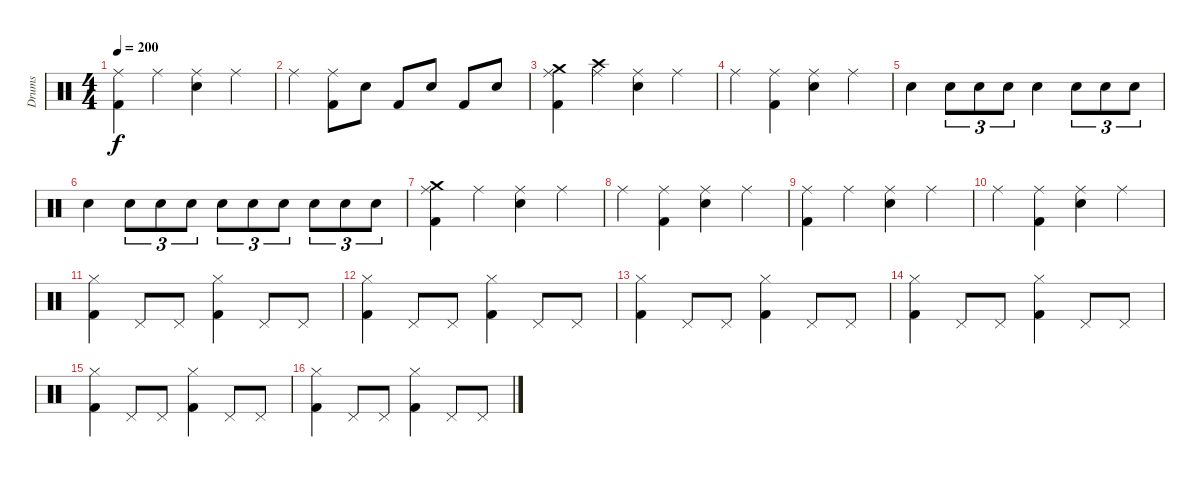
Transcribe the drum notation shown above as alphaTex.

\track ("Drums" "Drums") {instrument percussion}
\staff {score}
\articulation defaults
\ts (4 4)
\tempo 200
\clef neutral
\ks c
("Ride (middle)" "Kick (hit) 2").4{dy f} "Ride (middle)".4 ("Ride (middle)" "Snare (hit) 2").4 "Ride (middle)".4 |
"Ride (middle)".4 ("Ride (middle)" "Kick (hit) 2").8 "Snare (hit) 2".8 "Kick (hit) 2".8 "Snare (hit) 2".8 "Kick (hit) 2".8 "Snare (hit) 2".8 |
("Ride (middle)" "Crash medium (hit)" "Kick (hit) 2").4 ("Ride (middle)" "Crash high (hit)").4 ("Ride (middle)" "Snare (hit) 2").4 "Ride (middle)".4 |
"Ride (middle)".4 ("Ride (middle)" "Kick (hit) 2").4 ("Ride (middle)" "Snare (hit) 2").4 "Ride (middle)".4 |
"Snare (hit) 2".4 "Snare (hit) 2".8{tu (3 2)} "Snare (hit) 2".8{tu (3 2)} "Snare (hit) 2".8{tu (3 2)} "Snare (hit) 2".4 "Snare (hit) 2".8{tu (3 2)} "Snare (hit) 2".8{tu (3 2)} "Snare (hit) 2".8{tu (3 2)} |
"Snare (hit) 2".4 "Snare (hit) 2".8{tu (3 2)} "Snare (hit) 2".8{tu (3 2)} "Snare (hit) 2".8{tu (3 2)} "Snare (hit) 2".8{tu (3 2)} "Snare (hit) 2".8{tu (3 2)} "Snare (hit) 2".8{tu (3 2)} "Snare (hit) 2".8{tu (3 2)} "Snare (hit) 2".8{tu (3 2)} "Snare (hit) 2".8{tu (3 2)} |
("Ride (middle)" "Crash medium (hit)" "Kick (hit) 2").4 "Ride (middle)".4 ("Ride (middle)" "Snare (hit) 2").4 "Ride (middle)".4 |
"Ride (middle)".4 ("Ride (middle)" "Kick (hit) 2").4 ("Ride (middle)" "Snare (hit) 2").4 "Ride (middle)".4 |
("Ride (middle)" "Kick (hit) 2").4 "Ride (middle)".4 ("Ride (middle)" "Snare (hit) 2").4 "Ride (middle)".4 |
"Ride (middle)".4 ("Ride (middle)" "Kick (hit) 2").4 ("Ride (middle)" "Snare (hit) 2").4 "Ride (middle)".4 |
("Hi-Hat (closed)" "Kick (hit) 2").4 "Pedal Hi-Hat (hit)".8 "Pedal Hi-Hat (hit)".8 ("Hi-Hat (closed)" "Kick (hit) 2").4 "Pedal Hi-Hat (hit)".8 "Pedal Hi-Hat (hit)".8 |
("Hi-Hat (closed)" "Kick (hit) 2").4 "Pedal Hi-Hat (hit)".8 "Pedal Hi-Hat (hit)".8 ("Hi-Hat (closed)" "Kick (hit) 2").4 "Pedal Hi-Hat (hit)".8 "Pedal Hi-Hat (hit)".8 |
("Hi-Hat (closed)" "Kick (hit) 2").4 "Pedal Hi-Hat (hit)".8 "Pedal Hi-Hat (hit)".8 ("Hi-Hat (closed)" "Kick (hit) 2").4 "Pedal Hi-Hat (hit)".8 "Pedal Hi-Hat (hit)".8 |
("Hi-Hat (closed)" "Kick (hit) 2").4 "Pedal Hi-Hat (hit)".8 "Pedal Hi-Hat (hit)".8 ("Hi-Hat (closed)" "Kick (hit) 2").4 "Pedal Hi-Hat (hit)".8 "Pedal Hi-Hat (hit)".8 |
("Hi-Hat (closed)" "Kick (hit) 2").4 "Pedal Hi-Hat (hit)".8 "Pedal Hi-Hat (hit)".8 ("Hi-Hat (closed)" "Kick (hit) 2").4 "Pedal Hi-Hat (hit)".8 "Pedal Hi-Hat (hit)".8 |
("Hi-Hat (closed)" "Kick (hit) 2").4 "Pedal Hi-Hat (hit)".8 "Pedal Hi-Hat (hit)".8 ("Hi-Hat (closed)" "Kick (hit) 2").4 "Pedal Hi-Hat (hit)".8 "Pedal Hi-Hat (hit)".8
